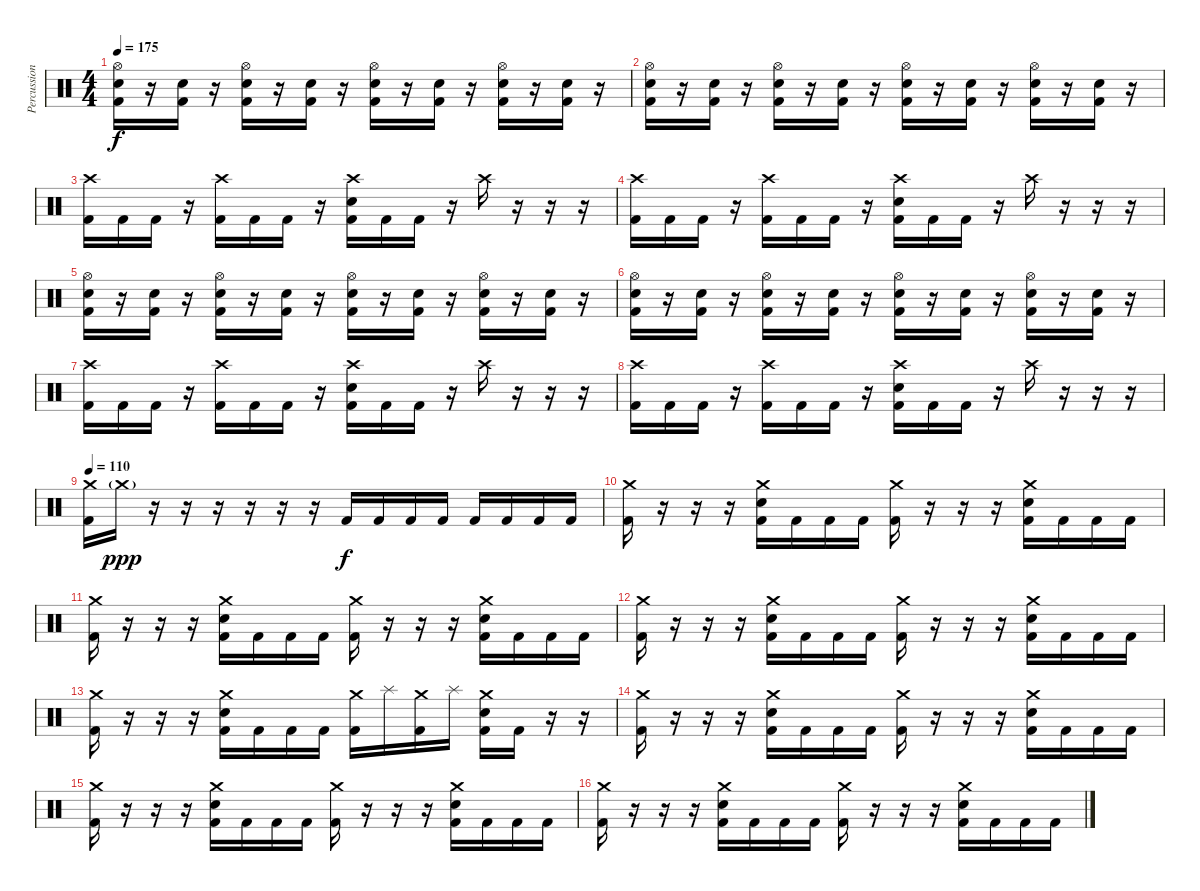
\track ("Percussion" "Percussion") {instrument percussion}
\staff {score}
\articulation defaults
\ts (4 4)
\tempo 175
\clef neutral
\ks c
("Hi-Hat (open)" "Electric Snare (hit)" "Kick (hit) 2").16{dy f} r.16 ("Electric Snare (hit)" "Kick (hit) 2").16 r.16 ("Hi-Hat (open)" "Electric Snare (hit)" "Kick (hit) 2").16 r.16 ("Electric Snare (hit)" "Kick (hit) 2").16 r.16 ("Hi-Hat (open)" "Electric Snare (hit)" "Kick (hit) 2").16 r.16 ("Electric Snare (hit)" "Kick (hit) 2").16 r.16 ("Hi-Hat (open)" "Electric Snare (hit)" "Kick (hit) 2").16 r.16 ("Electric Snare (hit)" "Kick (hit) 2").16 r.16 |
("Hi-Hat (open)" "Electric Snare (hit)" "Kick (hit) 2").16 r.16 ("Electric Snare (hit)" "Kick (hit) 2").16 r.16 ("Hi-Hat (open)" "Electric Snare (hit)" "Kick (hit) 2").16 r.16 ("Electric Snare (hit)" "Kick (hit) 2").16 r.16 ("Hi-Hat (open)" "Electric Snare (hit)" "Kick (hit) 2").16 r.16 ("Electric Snare (hit)" "Kick (hit) 2").16 r.16 ("Hi-Hat (open)" "Electric Snare (hit)" "Kick (hit) 2").16 r.16 ("Electric Snare (hit)" "Kick (hit) 2").16 r.16 |
("Crash high (hit)" "Kick (hit) 2").16 "Kick (hit) 2".16 "Kick (hit) 2".16 r.16 ("Crash high (hit)" "Kick (hit) 2").16 "Kick (hit) 2".16 "Kick (hit) 2".16 r.16 ("Crash high (hit)" "Electric Snare (hit)" "Kick (hit) 2").16 "Kick (hit) 2".16 "Kick (hit) 2".16 r.16 "Crash high (hit)".16 r.16 r.16 r.16 |
("Crash high (hit)" "Kick (hit) 2").16 "Kick (hit) 2".16 "Kick (hit) 2".16 r.16 ("Crash high (hit)" "Kick (hit) 2").16 "Kick (hit) 2".16 "Kick (hit) 2".16 r.16 ("Crash high (hit)" "Electric Snare (hit)" "Kick (hit) 2").16 "Kick (hit) 2".16 "Kick (hit) 2".16 r.16 "Crash high (hit)".16 r.16 r.16 r.16 |
("Hi-Hat (open)" "Electric Snare (hit)" "Kick (hit) 2").16 r.16 ("Electric Snare (hit)" "Kick (hit) 2").16 r.16 ("Hi-Hat (open)" "Electric Snare (hit)" "Kick (hit) 2").16 r.16 ("Electric Snare (hit)" "Kick (hit) 2").16 r.16 ("Hi-Hat (open)" "Electric Snare (hit)" "Kick (hit) 2").16 r.16 ("Electric Snare (hit)" "Kick (hit) 2").16 r.16 ("Hi-Hat (open)" "Electric Snare (hit)" "Kick (hit) 2").16 r.16 ("Electric Snare (hit)" "Kick (hit) 2").16 r.16 |
("Hi-Hat (open)" "Electric Snare (hit)" "Kick (hit) 2").16 r.16 ("Electric Snare (hit)" "Kick (hit) 2").16 r.16 ("Hi-Hat (open)" "Electric Snare (hit)" "Kick (hit) 2").16 r.16 ("Electric Snare (hit)" "Kick (hit) 2").16 r.16 ("Hi-Hat (open)" "Electric Snare (hit)" "Kick (hit) 2").16 r.16 ("Electric Snare (hit)" "Kick (hit) 2").16 r.16 ("Hi-Hat (open)" "Electric Snare (hit)" "Kick (hit) 2").16 r.16 ("Electric Snare (hit)" "Kick (hit) 2").16 r.16 |
("Crash high (hit)" "Kick (hit) 2").16 "Kick (hit) 2".16 "Kick (hit) 2".16 r.16 ("Crash high (hit)" "Kick (hit) 2").16 "Kick (hit) 2".16 "Kick (hit) 2".16 r.16 ("Crash high (hit)" "Electric Snare (hit)" "Kick (hit) 2").16 "Kick (hit) 2".16 "Kick (hit) 2".16 r.16 "Crash high (hit)".16 r.16 r.16 r.16 |
("Crash high (hit)" "Kick (hit) 2").16 "Kick (hit) 2".16 "Kick (hit) 2".16 r.16 ("Crash high (hit)" "Kick (hit) 2").16 "Kick (hit) 2".16 "Kick (hit) 2".16 r.16 ("Crash high (hit)" "Electric Snare (hit)" "Kick (hit) 2").16 "Kick (hit) 2".16 "Kick (hit) 2".16 r.16 "Crash high (hit)".16 r.16 r.16 r.16 |
\tempo 110
("Crash medium (hit)" "Kick (hit) 2").16 "Crash medium (hit)"{g}.16{dy ppp} r.16 r.16 r.16 r.16 r.16 r.16 "Kick (hit) 2".16{dy f} "Kick (hit) 2".16 "Kick (hit) 2".16 "Kick (hit) 2".16 "Kick (hit) 2".16 "Kick (hit) 2".16 "Kick (hit) 2".16 "Kick (hit) 2".16 |
("Crash medium (hit)" "Kick (hit) 2").16 r.16 r.16 r.16 ("Crash medium (hit)" "Electric Snare (hit)" "Kick (hit) 2").16 "Kick (hit) 2".16 "Kick (hit) 2".16 "Kick (hit) 2".16 ("Crash medium (hit)" "Kick (hit) 2").16 r.16 r.16 r.16 ("Crash medium (hit)" "Electric Snare (hit)" "Kick (hit) 2").16 "Kick (hit) 2".16 "Kick (hit) 2".16 "Kick (hit) 2".16 |
("Crash medium (hit)" "Kick (hit) 2").16 r.16 r.16 r.16 ("Crash medium (hit)" "Electric Snare (hit)" "Kick (hit) 2").16 "Kick (hit) 2".16 "Kick (hit) 2".16 "Kick (hit) 2".16 ("Crash medium (hit)" "Kick (hit) 2").16 r.16 r.16 r.16 ("Crash medium (hit)" "Electric Snare (hit)" "Kick (hit) 2").16 "Kick (hit) 2".16 "Kick (hit) 2".16 "Kick (hit) 2".16 |
("Crash medium (hit)" "Kick (hit) 2").16 r.16 r.16 r.16 ("Crash medium (hit)" "Electric Snare (hit)" "Kick (hit) 2").16 "Kick (hit) 2".16 "Kick (hit) 2".16 "Kick (hit) 2".16 ("Crash medium (hit)" "Kick (hit) 2").16 r.16 r.16 r.16 ("Crash medium (hit)" "Electric Snare (hit)" "Kick (hit) 2").16 "Kick (hit) 2".16 "Kick (hit) 2".16 "Kick (hit) 2".16 |
("Crash medium (hit)" "Kick (hit) 2").16 r.16 r.16 r.16 ("Crash medium (hit)" "Electric Snare (hit)" "Kick (hit) 2").16 "Kick (hit) 2".16 "Kick (hit) 2".16 "Kick (hit) 2".16 ("Crash medium (hit)" "Kick (hit) 2").16 "Splash (hit)".16 ("Crash medium (hit)" "Kick (hit) 2").16 "Splash (hit)".16 ("Crash medium (hit)" "Electric Snare (hit)" "Kick (hit) 2").16 "Kick (hit) 2".16 r.16 r.16 |
("Crash medium (hit)" "Kick (hit) 2").16 r.16 r.16 r.16 ("Crash medium (hit)" "Electric Snare (hit)" "Kick (hit) 2").16 "Kick (hit) 2".16 "Kick (hit) 2".16 "Kick (hit) 2".16 ("Crash medium (hit)" "Kick (hit) 2").16 r.16 r.16 r.16 ("Crash medium (hit)" "Electric Snare (hit)" "Kick (hit) 2").16 "Kick (hit) 2".16 "Kick (hit) 2".16 "Kick (hit) 2".16 |
("Crash medium (hit)" "Kick (hit) 2").16 r.16 r.16 r.16 ("Crash medium (hit)" "Electric Snare (hit)" "Kick (hit) 2").16 "Kick (hit) 2".16 "Kick (hit) 2".16 "Kick (hit) 2".16 ("Crash medium (hit)" "Kick (hit) 2").16 r.16 r.16 r.16 ("Crash medium (hit)" "Electric Snare (hit)" "Kick (hit) 2").16 "Kick (hit) 2".16 "Kick (hit) 2".16 "Kick (hit) 2".16 |
("Crash medium (hit)" "Kick (hit) 2").16 r.16 r.16 r.16 ("Crash medium (hit)" "Electric Snare (hit)" "Kick (hit) 2").16 "Kick (hit) 2".16 "Kick (hit) 2".16 "Kick (hit) 2".16 ("Crash medium (hit)" "Kick (hit) 2").16 r.16 r.16 r.16 ("Crash medium (hit)" "Electric Snare (hit)" "Kick (hit) 2").16 "Kick (hit) 2".16 "Kick (hit) 2".16 "Kick (hit) 2".16
